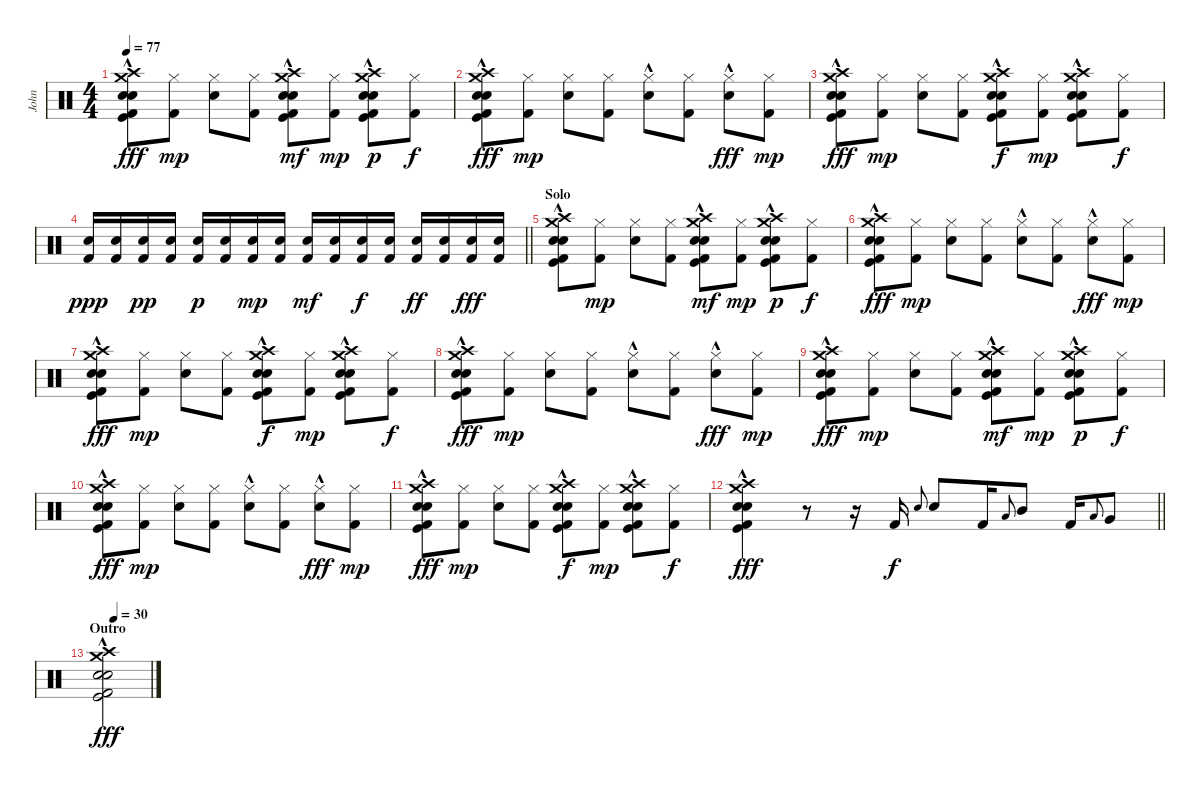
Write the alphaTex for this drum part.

\track ("John" "John") {instrument percussion}
\staff {score}
\articulation defaults
\ts (4 4)
\tempo 77
\clef neutral
\ks c
("Crash medium (hit)"{hac} "Crash high (hit)"{hac} "Kick (hit)"{hac} "Snare (hit) 2"{hac} "Electric Snare (hit)"{hac} "Kick (hit) 2"{hac}).8{dy fff} ("Hi-Hat (closed)" "Kick (hit) 2").8{dy mp} ("Hi-Hat (closed)" "Electric Snare (hit)").8 ("Hi-Hat (closed)" "Kick (hit) 2").8 ("Crash medium (hit)"{hac} "Crash high (hit)"{hac} "Kick (hit)"{hac} "Snare (hit) 2"{hac} "Electric Snare (hit)"{hac} "Kick (hit) 2"{hac}).8{dy mf} ("Hi-Hat (closed)" "Kick (hit) 2").8{dy mp} ("Crash medium (hit)"{hac} "Crash high (hit)"{hac} "Kick (hit)"{hac} "Snare (hit) 2"{hac} "Electric Snare (hit)"{hac} "Kick (hit) 2"{hac}).8{dy p} ("Hi-Hat (closed)" "Kick (hit) 2").8{dy f} |
("Crash medium (hit)"{hac} "Crash high (hit)"{hac} "Kick (hit)"{hac} "Snare (hit) 2"{hac} "Electric Snare (hit)"{hac} "Kick (hit) 2"{hac}).8{dy fff} ("Hi-Hat (closed)" "Kick (hit) 2").8{dy mp} ("Hi-Hat (closed)" "Electric Snare (hit)").8 ("Hi-Hat (closed)" "Kick (hit) 2").8 ("Hi-Hat (closed)"{hac} "Electric Snare (hit)"{hac}).8 ("Hi-Hat (closed)" "Kick (hit) 2").8 ("Hi-Hat (closed)"{hac} "Electric Snare (hit)"{hac}).8{dy fff} ("Hi-Hat (closed)" "Kick (hit) 2").8{dy mp} |
("Crash medium (hit)"{hac} "Crash high (hit)"{hac} "Kick (hit)"{hac} "Snare (hit) 2"{hac} "Electric Snare (hit)"{hac} "Kick (hit) 2"{hac}).8{dy fff} ("Hi-Hat (closed)" "Kick (hit) 2").8{dy mp} ("Hi-Hat (closed)" "Electric Snare (hit)").8 ("Hi-Hat (closed)" "Kick (hit) 2").8 ("Crash medium (hit)"{hac} "Crash high (hit)"{hac} "Kick (hit)"{hac} "Snare (hit) 2"{hac} "Electric Snare (hit)"{hac} "Kick (hit) 2"{hac}).8{dy f} ("Hi-Hat (closed)" "Kick (hit) 2").8{dy mp} ("Crash medium (hit)"{hac} "Crash high (hit)"{hac} "Kick (hit)"{hac} "Snare (hit) 2"{hac} "Electric Snare (hit)"{hac} "Kick (hit) 2"{hac}).8 ("Hi-Hat (closed)" "Kick (hit) 2").8{dy f} |
\barLineRight lightlight
("Electric Snare (hit)" "Kick (hit) 2").16{dy ppp} ("Electric Snare (hit)" "Kick (hit) 2").16 ("Electric Snare (hit)" "Kick (hit) 2").16{dy pp} ("Electric Snare (hit)" "Kick (hit) 2").16 ("Electric Snare (hit)" "Kick (hit) 2").16{dy p} ("Electric Snare (hit)" "Kick (hit) 2").16 ("Electric Snare (hit)" "Kick (hit) 2").16{dy mp} ("Electric Snare (hit)" "Kick (hit) 2").16 ("Electric Snare (hit)" "Kick (hit) 2").16{dy mf} ("Electric Snare (hit)" "Kick (hit) 2").16 ("Electric Snare (hit)" "Kick (hit) 2").16{dy f} ("Electric Snare (hit)" "Kick (hit) 2").16 ("Electric Snare (hit)" "Kick (hit) 2").16{dy ff} ("Electric Snare (hit)" "Kick (hit) 2").16 ("Electric Snare (hit)" "Kick (hit) 2").16{dy fff} ("Electric Snare (hit)" "Kick (hit) 2").16 |
\section ("" "Solo")
("Crash medium (hit)"{hac} "Crash high (hit)"{hac} "Kick (hit)"{hac} "Snare (hit) 2"{hac} "Electric Snare (hit)"{hac} "Kick (hit) 2"{hac}).8 ("Hi-Hat (closed)" "Kick (hit) 2").8{dy mp} ("Hi-Hat (closed)" "Electric Snare (hit)").8 ("Hi-Hat (closed)" "Kick (hit) 2").8 ("Crash medium (hit)"{hac} "Crash high (hit)"{hac} "Kick (hit)"{hac} "Snare (hit) 2"{hac} "Electric Snare (hit)"{hac} "Kick (hit) 2"{hac}).8{dy mf} ("Hi-Hat (closed)" "Kick (hit) 2").8{dy mp} ("Crash medium (hit)"{hac} "Crash high (hit)"{hac} "Kick (hit)"{hac} "Snare (hit) 2"{hac} "Electric Snare (hit)"{hac} "Kick (hit) 2"{hac}).8{dy p} ("Hi-Hat (closed)" "Kick (hit) 2").8{dy f} |
("Crash medium (hit)"{hac} "Crash high (hit)"{hac} "Kick (hit)"{hac} "Snare (hit) 2"{hac} "Electric Snare (hit)"{hac} "Kick (hit) 2"{hac}).8{dy fff} ("Hi-Hat (closed)" "Kick (hit) 2").8{dy mp} ("Hi-Hat (closed)" "Electric Snare (hit)").8 ("Hi-Hat (closed)" "Kick (hit) 2").8 ("Hi-Hat (closed)"{hac} "Electric Snare (hit)"{hac}).8 ("Hi-Hat (closed)" "Kick (hit) 2").8 ("Hi-Hat (closed)"{hac} "Electric Snare (hit)"{hac}).8{dy fff} ("Hi-Hat (closed)" "Kick (hit) 2").8{dy mp} |
("Crash medium (hit)"{hac} "Crash high (hit)"{hac} "Kick (hit)"{hac} "Snare (hit) 2"{hac} "Electric Snare (hit)"{hac} "Kick (hit) 2"{hac}).8{dy fff} ("Hi-Hat (closed)" "Kick (hit) 2").8{dy mp} ("Hi-Hat (closed)" "Electric Snare (hit)").8 ("Hi-Hat (closed)" "Kick (hit) 2").8 ("Crash medium (hit)"{hac} "Crash high (hit)"{hac} "Kick (hit)"{hac} "Snare (hit) 2"{hac} "Electric Snare (hit)"{hac} "Kick (hit) 2"{hac}).8{dy f} ("Hi-Hat (closed)" "Kick (hit) 2").8{dy mp} ("Crash medium (hit)"{hac} "Crash high (hit)"{hac} "Kick (hit)"{hac} "Snare (hit) 2"{hac} "Electric Snare (hit)"{hac} "Kick (hit) 2"{hac}).8 ("Hi-Hat (closed)" "Kick (hit) 2").8{dy f} |
("Crash medium (hit)"{hac} "Crash high (hit)"{hac} "Kick (hit)"{hac} "Snare (hit) 2"{hac} "Electric Snare (hit)"{hac} "Kick (hit) 2"{hac}).8{dy fff} ("Hi-Hat (closed)" "Kick (hit) 2").8{dy mp} ("Hi-Hat (closed)" "Electric Snare (hit)").8 ("Hi-Hat (closed)" "Kick (hit) 2").8 ("Hi-Hat (closed)"{hac} "Electric Snare (hit)"{hac}).8 ("Hi-Hat (closed)" "Kick (hit) 2").8 ("Hi-Hat (closed)"{hac} "Electric Snare (hit)"{hac}).8{dy fff} ("Hi-Hat (closed)" "Kick (hit) 2").8{dy mp} |
("Crash medium (hit)"{hac} "Crash high (hit)"{hac} "Kick (hit)"{hac} "Snare (hit) 2"{hac} "Electric Snare (hit)"{hac} "Kick (hit) 2"{hac}).8{dy fff} ("Hi-Hat (closed)" "Kick (hit) 2").8{dy mp} ("Hi-Hat (closed)" "Electric Snare (hit)").8 ("Hi-Hat (closed)" "Kick (hit) 2").8 ("Crash medium (hit)"{hac} "Crash high (hit)"{hac} "Kick (hit)"{hac} "Snare (hit) 2"{hac} "Electric Snare (hit)"{hac} "Kick (hit) 2"{hac}).8{dy mf} ("Hi-Hat (closed)" "Kick (hit) 2").8{dy mp} ("Crash medium (hit)"{hac} "Crash high (hit)"{hac} "Kick (hit)"{hac} "Snare (hit) 2"{hac} "Electric Snare (hit)"{hac} "Kick (hit) 2"{hac}).8{dy p} ("Hi-Hat (closed)" "Kick (hit) 2").8{dy f} |
("Crash medium (hit)"{hac} "Crash high (hit)"{hac} "Kick (hit)"{hac} "Snare (hit) 2"{hac} "Electric Snare (hit)"{hac} "Kick (hit) 2"{hac}).8{dy fff} ("Hi-Hat (closed)" "Kick (hit) 2").8{dy mp} ("Hi-Hat (closed)" "Electric Snare (hit)").8 ("Hi-Hat (closed)" "Kick (hit) 2").8 ("Hi-Hat (closed)"{hac} "Electric Snare (hit)"{hac}).8 ("Hi-Hat (closed)" "Kick (hit) 2").8 ("Hi-Hat (closed)"{hac} "Electric Snare (hit)"{hac}).8{dy fff} ("Hi-Hat (closed)" "Kick (hit) 2").8{dy mp} |
("Crash medium (hit)"{hac} "Crash high (hit)"{hac} "Kick (hit)"{hac} "Snare (hit) 2"{hac} "Electric Snare (hit)"{hac} "Kick (hit) 2"{hac}).8{dy fff} ("Hi-Hat (closed)" "Kick (hit) 2").8{dy mp} ("Hi-Hat (closed)" "Electric Snare (hit)").8 ("Hi-Hat (closed)" "Kick (hit) 2").8 ("Crash medium (hit)"{hac} "Crash high (hit)"{hac} "Kick (hit)"{hac} "Snare (hit) 2"{hac} "Electric Snare (hit)"{hac} "Kick (hit) 2"{hac}).8{dy f} ("Hi-Hat (closed)" "Kick (hit) 2").8{dy mp} ("Crash medium (hit)"{hac} "Crash high (hit)"{hac} "Kick (hit)"{hac} "Snare (hit) 2"{hac} "Electric Snare (hit)"{hac} "Kick (hit) 2"{hac}).8 ("Hi-Hat (closed)" "Kick (hit) 2").8{dy f} |
\barLineRight lightlight
("Crash medium (hit)"{hac} "Crash high (hit)"{hac} "Kick (hit)"{hac} "Snare (hit) 2"{hac} "Electric Snare (hit)"{hac} "Kick (hit) 2"{hac}).4{dy fff} r.8 r.16 "Kick (hit) 2".16{dy f} "Snare (hit) 2".8{gr onbeat} "Electric Snare (hit)".8 "Kick (hit) 2".16 "Low Tom (hit)".8{gr onbeat} "Mid Tom (hit)".8 "Kick (hit) 2".16 "Low Floor Tom (hit)".8{gr onbeat} "Very Low Tom (hit)".8 |
\section ("" "Outro ")
\tempo (30 0.25)
("Crash medium (hit)"{hac} "Crash high (hit)"{hac} "Kick (hit)"{hac} "Snare (hit) 2"{hac} "Electric Snare (hit)"{hac} "Kick (hit) 2"{hac}).2{dy fff}
